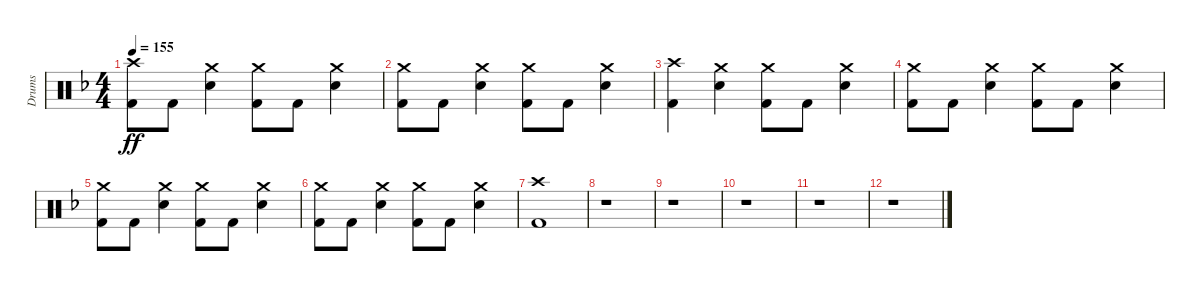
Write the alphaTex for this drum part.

\track ("Drums" "Drums") {instrument percussion}
\staff {score}
\articulation defaults
\ts (4 4)
\tempo 155
\clef neutral
\ks f
("Kick (hit) 2" "Crash high (hit)").8{dy ff} "Kick (hit) 2".8 ("Snare (hit) 2" "Crash medium (hit)").4 ("Kick (hit) 2" "Crash medium (hit)").8 "Kick (hit) 2".8 ("Snare (hit) 2" "Crash medium (hit)").4 |
("Kick (hit) 2" "Crash medium (hit)").8 "Kick (hit) 2".8 ("Snare (hit) 2" "Crash medium (hit)").4 ("Kick (hit) 2" "Crash medium (hit)").8 "Kick (hit) 2".8 ("Snare (hit) 2" "Crash medium (hit)").4 |
("Kick (hit) 2" "Crash high (hit)").4 ("Snare (hit) 2" "Crash medium (hit)").4 ("Kick (hit) 2" "Crash medium (hit)").8 "Kick (hit) 2".8 ("Snare (hit) 2" "Crash medium (hit)").4 |
("Kick (hit) 2" "Crash medium (hit)").8 "Kick (hit) 2".8 ("Snare (hit) 2" "Crash medium (hit)").4 ("Kick (hit) 2" "Crash medium (hit)").8 "Kick (hit) 2".8 ("Snare (hit) 2" "Crash medium (hit)").4 |
("Kick (hit) 2" "Crash medium (hit)").8 "Kick (hit) 2".8 ("Snare (hit) 2" "Crash medium (hit)").4 ("Kick (hit) 2" "Crash medium (hit)").8 "Kick (hit) 2".8 ("Snare (hit) 2" "Crash medium (hit)").4 |
("Kick (hit) 2" "Crash medium (hit)").8 "Kick (hit) 2".8 ("Snare (hit) 2" "Crash medium (hit)").4 ("Kick (hit) 2" "Crash medium (hit)").8 "Kick (hit) 2".8 ("Snare (hit) 2" "Crash medium (hit)").4 |
("Kick (hit) 2" "Crash high (hit)").1 |
r.1 |
r.1 |
r.1 |
r.1 |
r.1
